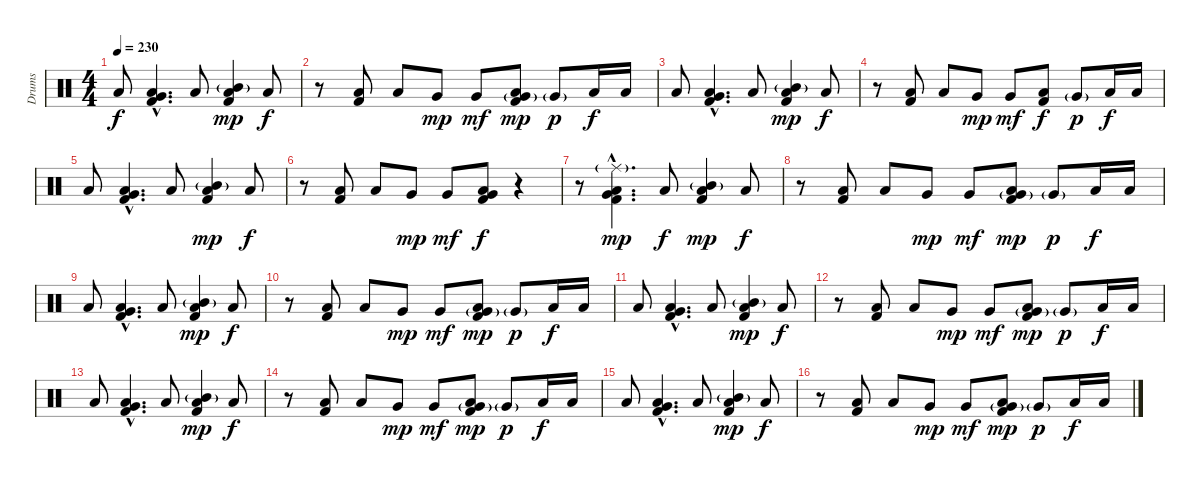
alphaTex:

\track ("Drums" "Drums") {instrument percussion}
\staff {score}
\articulation defaults
\ts (4 4)
\tempo 230
\clef neutral
\ks c "Low Floor Tom (hit)".8{dy f}
("Very Low Tom (hit)"{hac} "Low Floor Tom (hit)"{hac} "Kick (hit) 2"{hac}).4{d} "Low Tom (hit)".8 ("Mid Tom (hit)"{g} "Low Tom (hit)" "Kick (hit) 2").4{dy mp} "Low Tom (hit)".8{dy f} |
r.8 ("Low Tom (hit)" "Kick (hit) 2").8 "Low Tom (hit)".8 "Very Low Tom (hit)".8{dy mp} "Very Low Tom (hit)".8{dy mf} ("Very Low Tom (hit)"{g} "Low Tom (hit)" "Kick (hit) 2").8{dy mp} "Very Low Tom (hit)"{g}.8{dy p} "Low Floor Tom (hit)".16{dy f} "Low Floor Tom (hit)".16 |
"Low Floor Tom (hit)".8 ("Very Low Tom (hit)"{hac} "Low Floor Tom (hit)"{hac} "Kick (hit) 2"{hac}).4{d} "Low Tom (hit)".8 ("Mid Tom (hit)"{g} "Low Tom (hit)" "Kick (hit) 2").4{dy mp} "Low Tom (hit)".8{dy f} |
r.8 ("Low Tom (hit)" "Kick (hit) 2").8 "Low Tom (hit)".8 "Very Low Tom (hit)".8{dy mp} "Very Low Tom (hit)".8{dy mf} ("Low Tom (hit)" "Kick (hit) 2").8{dy f} "Very Low Tom (hit)"{g}.8{dy p} "Low Floor Tom (hit)".16{dy f} "Low Floor Tom (hit)".16 |
"Low Floor Tom (hit)".8 ("Very Low Tom (hit)"{hac} "Low Floor Tom (hit)"{hac} "Kick (hit) 2"{hac}).4{d} "Low Tom (hit)".8 ("Mid Tom (hit)"{g} "Low Tom (hit)" "Kick (hit) 2").4{dy mp} "Low Tom (hit)".8{dy f} |
r.8 ("Low Tom (hit)" "Kick (hit) 2").8 "Low Tom (hit)".8 "Very Low Tom (hit)".8{dy mp} "Very Low Tom (hit)".8{dy mf} ("Very Low Tom (hit)" "Low Tom (hit)" "Kick (hit) 2").8{dy f} r.4 |
r.8 ("Ride (middle)"{g hac} "Very Low Tom (hit)"{hac} "Low Floor Tom (hit)"{hac} "Kick (hit) 2"{hac}).4{d dy mp} "Low Tom (hit)".8{dy f} ("Mid Tom (hit)"{g} "Low Tom (hit)" "Kick (hit) 2").4{dy mp} "Low Tom (hit)".8{dy f} |
r.8 ("Low Tom (hit)" "Kick (hit) 2").8 "Low Tom (hit)".8 "Very Low Tom (hit)".8{dy mp} "Very Low Tom (hit)".8{dy mf} ("Very Low Tom (hit)"{g} "Low Tom (hit)" "Kick (hit) 2").8{dy mp} "Very Low Tom (hit)"{g}.8{dy p} "Low Floor Tom (hit)".16{dy f} "Low Floor Tom (hit)".16 |
"Low Floor Tom (hit)".8 ("Very Low Tom (hit)"{hac} "Low Floor Tom (hit)"{hac} "Kick (hit) 2"{hac}).4{d} "Low Tom (hit)".8 ("Mid Tom (hit)"{g} "Low Tom (hit)" "Kick (hit) 2").4{dy mp} "Low Tom (hit)".8{dy f} |
r.8 ("Low Tom (hit)" "Kick (hit) 2").8 "Low Tom (hit)".8 "Very Low Tom (hit)".8{dy mp} "Very Low Tom (hit)".8{dy mf} ("Very Low Tom (hit)"{g} "Low Tom (hit)" "Kick (hit) 2").8{dy mp} "Very Low Tom (hit)"{g}.8{dy p} "Low Floor Tom (hit)".16{dy f} "Low Floor Tom (hit)".16 |
"Low Floor Tom (hit)".8 ("Very Low Tom (hit)"{hac} "Low Floor Tom (hit)"{hac} "Kick (hit) 2"{hac}).4{d} "Low Tom (hit)".8 ("Mid Tom (hit)"{g} "Low Tom (hit)" "Kick (hit) 2").4{dy mp} "Low Tom (hit)".8{dy f} |
r.8 ("Low Tom (hit)" "Kick (hit) 2").8 "Low Tom (hit)".8 "Very Low Tom (hit)".8{dy mp} "Very Low Tom (hit)".8{dy mf} ("Very Low Tom (hit)"{g} "Low Tom (hit)" "Kick (hit) 2").8{dy mp} "Very Low Tom (hit)"{g}.8{dy p} "Low Floor Tom (hit)".16{dy f} "Low Floor Tom (hit)".16 |
"Low Floor Tom (hit)".8 ("Very Low Tom (hit)"{hac} "Low Floor Tom (hit)"{hac} "Kick (hit) 2"{hac}).4{d} "Low Tom (hit)".8 ("Mid Tom (hit)"{g} "Low Tom (hit)" "Kick (hit) 2").4{dy mp} "Low Tom (hit)".8{dy f} |
r.8 ("Low Tom (hit)" "Kick (hit) 2").8 "Low Tom (hit)".8 "Very Low Tom (hit)".8{dy mp} "Very Low Tom (hit)".8{dy mf} ("Very Low Tom (hit)"{g} "Low Tom (hit)" "Kick (hit) 2").8{dy mp} "Very Low Tom (hit)"{g}.8{dy p} "Low Floor Tom (hit)".16{dy f} "Low Floor Tom (hit)".16 |
"Low Floor Tom (hit)".8 ("Very Low Tom (hit)"{hac} "Low Floor Tom (hit)"{hac} "Kick (hit) 2"{hac}).4{d} "Low Tom (hit)".8 ("Mid Tom (hit)"{g} "Low Tom (hit)" "Kick (hit) 2").4{dy mp} "Low Tom (hit)".8{dy f} |
r.8 ("Low Tom (hit)" "Kick (hit) 2").8 "Low Tom (hit)".8 "Very Low Tom (hit)".8{dy mp} "Very Low Tom (hit)".8{dy mf} ("Very Low Tom (hit)"{g} "Low Tom (hit)" "Kick (hit) 2").8{dy mp} "Very Low Tom (hit)"{g}.8{dy p} "Low Floor Tom (hit)".16{dy f} "Low Floor Tom (hit)".16
